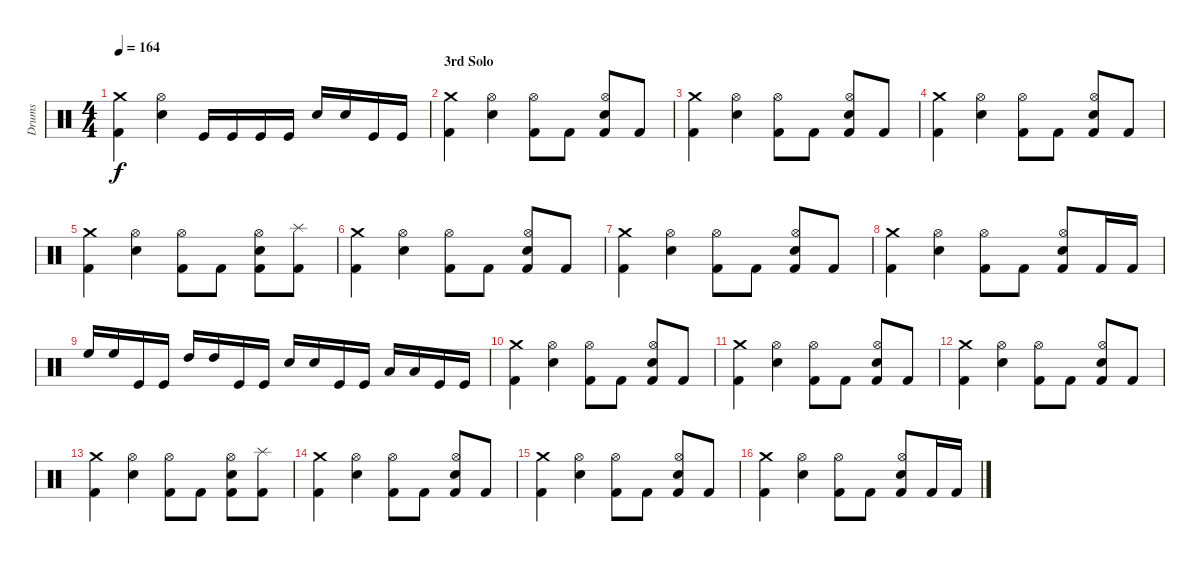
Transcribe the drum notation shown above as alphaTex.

\track ("Drums" "Drums") {instrument percussion}
\staff {score}
\articulation defaults
\ts (4 4)
\tempo 164
\clef neutral
\ks c
("Crash medium (hit)" "Kick (hit) 2").4{dy f} ("Hi-Hat (open)" "Electric Snare (hit)").4 "Kick (hit)".16 "Kick (hit)".16 "Kick (hit)".16 "Kick (hit)".16 "Electric Snare (hit)".16 "Electric Snare (hit)".16 "Kick (hit)".16 "Kick (hit)".16 |
\section ("" "3rd Solo")
("Crash medium (hit)" "Kick (hit) 2").4 ("Hi-Hat (open)" "Electric Snare (hit)").4 ("Hi-Hat (open)" "Kick (hit) 2").8 "Kick (hit) 2".8 ("Hi-Hat (open)" "Kick (hit) 2" "Electric Snare (hit)").8 "Kick (hit) 2".8 |
("Crash medium (hit)" "Kick (hit) 2").4 ("Hi-Hat (open)" "Electric Snare (hit)").4 ("Hi-Hat (open)" "Kick (hit) 2").8 "Kick (hit) 2".8 ("Hi-Hat (open)" "Kick (hit) 2" "Electric Snare (hit)").8 "Kick (hit) 2".8 |
("Crash medium (hit)" "Kick (hit) 2").4 ("Hi-Hat (open)" "Electric Snare (hit)").4 ("Hi-Hat (open)" "Kick (hit) 2").8 "Kick (hit) 2".8 ("Hi-Hat (open)" "Kick (hit) 2" "Electric Snare (hit)").8 "Kick (hit) 2".8 |
("Crash medium (hit)" "Kick (hit) 2").4 ("Hi-Hat (open)" "Electric Snare (hit)").4 ("Hi-Hat (open)" "Kick (hit) 2").8 "Kick (hit) 2".8 ("Hi-Hat (open)" "Kick (hit) 2" "Electric Snare (hit)").8 ("Kick (hit) 2" "Splash (hit)").8 |
("Crash medium (hit)" "Kick (hit) 2").4 ("Hi-Hat (open)" "Electric Snare (hit)").4 ("Hi-Hat (open)" "Kick (hit) 2").8 "Kick (hit) 2".8 ("Hi-Hat (open)" "Kick (hit) 2" "Electric Snare (hit)").8 "Kick (hit) 2".8 |
("Crash medium (hit)" "Kick (hit) 2").4 ("Hi-Hat (open)" "Electric Snare (hit)").4 ("Hi-Hat (open)" "Kick (hit) 2").8 "Kick (hit) 2".8 ("Hi-Hat (open)" "Kick (hit) 2" "Electric Snare (hit)").8 "Kick (hit) 2".8 |
("Crash medium (hit)" "Kick (hit) 2").4 ("Hi-Hat (open)" "Electric Snare (hit)").4 ("Hi-Hat (open)" "Kick (hit) 2").8 "Kick (hit) 2".8 ("Hi-Hat (open)" "Kick (hit) 2" "Electric Snare (hit)").8 "Kick (hit) 2".16 "Kick (hit) 2".16 |
"High Floor Tom (hit)".16 "High Floor Tom (hit)".16 "Kick (hit)".16 "Kick (hit)".16 "High Tom (hit)".16 "High Tom (hit)".16 "Kick (hit)".16 "Kick (hit)".16 "Electric Snare (hit)".16 "Electric Snare (hit)".16 "Kick (hit)".16 "Kick (hit)".16 "Low Tom (hit)".16 "Low Tom (hit)".16 "Kick (hit)".16 "Kick (hit)".16 |
("Crash medium (hit)" "Kick (hit) 2").4 ("Hi-Hat (open)" "Electric Snare (hit)").4 ("Hi-Hat (open)" "Kick (hit) 2").8 "Kick (hit) 2".8 ("Hi-Hat (open)" "Kick (hit) 2" "Electric Snare (hit)").8 "Kick (hit) 2".8 |
("Crash medium (hit)" "Kick (hit) 2").4 ("Hi-Hat (open)" "Electric Snare (hit)").4 ("Hi-Hat (open)" "Kick (hit) 2").8 "Kick (hit) 2".8 ("Hi-Hat (open)" "Kick (hit) 2" "Electric Snare (hit)").8 "Kick (hit) 2".8 |
("Crash medium (hit)" "Kick (hit) 2").4 ("Hi-Hat (open)" "Electric Snare (hit)").4 ("Hi-Hat (open)" "Kick (hit) 2").8 "Kick (hit) 2".8 ("Hi-Hat (open)" "Kick (hit) 2" "Electric Snare (hit)").8 "Kick (hit) 2".8 |
("Crash medium (hit)" "Kick (hit) 2").4 ("Hi-Hat (open)" "Electric Snare (hit)").4 ("Hi-Hat (open)" "Kick (hit) 2").8 "Kick (hit) 2".8 ("Hi-Hat (open)" "Kick (hit) 2" "Electric Snare (hit)").8 ("Kick (hit) 2" "Splash (hit)").8 |
("Crash medium (hit)" "Kick (hit) 2").4 ("Hi-Hat (open)" "Electric Snare (hit)").4 ("Hi-Hat (open)" "Kick (hit) 2").8 "Kick (hit) 2".8 ("Hi-Hat (open)" "Kick (hit) 2" "Electric Snare (hit)").8 "Kick (hit) 2".8 |
("Crash medium (hit)" "Kick (hit) 2").4 ("Hi-Hat (open)" "Electric Snare (hit)").4 ("Hi-Hat (open)" "Kick (hit) 2").8 "Kick (hit) 2".8 ("Hi-Hat (open)" "Kick (hit) 2" "Electric Snare (hit)").8 "Kick (hit) 2".8 |
("Crash medium (hit)" "Kick (hit) 2").4 ("Hi-Hat (open)" "Electric Snare (hit)").4 ("Hi-Hat (open)" "Kick (hit) 2").8 "Kick (hit) 2".8 ("Hi-Hat (open)" "Kick (hit) 2" "Electric Snare (hit)").8 "Kick (hit) 2".16 "Kick (hit) 2".16
